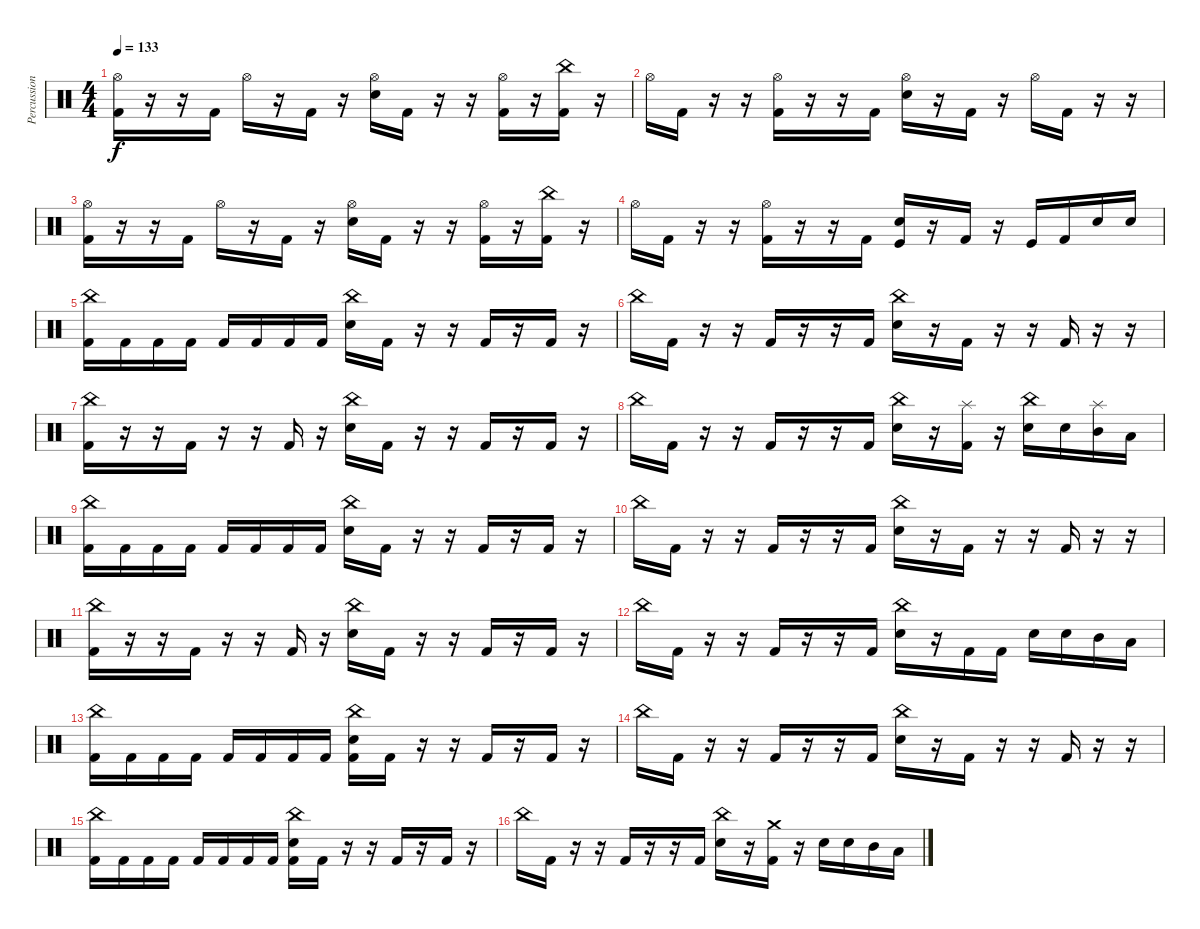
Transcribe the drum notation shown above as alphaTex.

\track ("Percussion" "Percussion") {instrument percussion}
\staff {score}
\articulation defaults
\ts (4 4)
\tempo 133
\clef neutral
\ks c
("Hi-Hat (open)" "Kick (hit) 2").16{dy f} r.16 r.16 "Kick (hit) 2".16 "Hi-Hat (open)".16 r.16 "Kick (hit) 2".16 r.16 ("Hi-Hat (open)" "Electric Snare (hit)").16 "Kick (hit) 2".16 r.16 r.16 ("Hi-Hat (open)" "Kick (hit) 2").16 r.16 ("China (hit)" "Kick (hit) 2").16 r.16 |
"Hi-Hat (open)".16 "Kick (hit) 2".16 r.16 r.16 ("Hi-Hat (open)" "Kick (hit) 2").16 r.16 r.16 "Kick (hit) 2".16 ("Hi-Hat (open)" "Electric Snare (hit)").16 r.16 "Kick (hit) 2".16 r.16 "Hi-Hat (open)".16 "Kick (hit) 2".16 r.16 r.16 |
("Hi-Hat (open)" "Kick (hit) 2").16 r.16 r.16 "Kick (hit) 2".16 "Hi-Hat (open)".16 r.16 "Kick (hit) 2".16 r.16 ("Hi-Hat (open)" "Electric Snare (hit)").16 "Kick (hit) 2".16 r.16 r.16 ("Hi-Hat (open)" "Kick (hit) 2").16 r.16 ("China (hit)" "Kick (hit) 2").16 r.16 |
"Hi-Hat (open)".16 "Kick (hit) 2".16 r.16 r.16 ("Hi-Hat (open)" "Kick (hit) 2").16 r.16 r.16 "Kick (hit) 2".16 ("Kick (hit)" "Electric Snare (hit)").16 r.16 "Kick (hit) 2".16 r.16 "Kick (hit)".16 "Kick (hit) 2".16 "Electric Snare (hit)".16 "Electric Snare (hit)".16 |
("China (hit)" "Kick (hit) 2").16 "Kick (hit) 2".16 "Kick (hit) 2".16 "Kick (hit) 2".16 "Kick (hit) 2".16 "Kick (hit) 2".16 "Kick (hit) 2".16 "Kick (hit) 2".16 ("China (hit)" "Electric Snare (hit)").16 "Kick (hit) 2".16 r.16 r.16 "Kick (hit) 2".16 r.16 "Kick (hit) 2".16 r.16 |
"China (hit)".16 "Kick (hit) 2".16 r.16 r.16 "Kick (hit) 2".16 r.16 r.16 "Kick (hit) 2".16 ("China (hit)" "Electric Snare (hit)").16 r.16 "Kick (hit) 2".16 r.16 r.16 "Kick (hit) 2".16 r.16 r.16 |
("China (hit)" "Kick (hit) 2").16 r.16 r.16 "Kick (hit) 2".16 r.16 r.16 "Kick (hit) 2".16 r.16 ("China (hit)" "Electric Snare (hit)").16 "Kick (hit) 2".16 r.16 r.16 "Kick (hit) 2".16 r.16 "Kick (hit) 2".16 r.16 |
"China (hit)".16 "Kick (hit) 2".16 r.16 r.16 "Kick (hit) 2".16 r.16 r.16 "Kick (hit) 2".16 ("China (hit)" "Electric Snare (hit)").16 r.16 ("Splash (hit)" "Kick (hit) 2").16 r.16 ("China (hit)" "Electric Snare (hit)").16 "Electric Snare (hit)".16 ("Splash (hit)" "Mid Tom (hit)").16 "Low Tom (hit)".16 |
("China (hit)" "Kick (hit) 2").16 "Kick (hit) 2".16 "Kick (hit) 2".16 "Kick (hit) 2".16 "Kick (hit) 2".16 "Kick (hit) 2".16 "Kick (hit) 2".16 "Kick (hit) 2".16 ("China (hit)" "Electric Snare (hit)").16 "Kick (hit) 2".16 r.16 r.16 "Kick (hit) 2".16 r.16 "Kick (hit) 2".16 r.16 |
"China (hit)".16 "Kick (hit) 2".16 r.16 r.16 "Kick (hit) 2".16 r.16 r.16 "Kick (hit) 2".16 ("China (hit)" "Electric Snare (hit)").16 r.16 "Kick (hit) 2".16 r.16 r.16 "Kick (hit) 2".16 r.16 r.16 |
("China (hit)" "Kick (hit) 2").16 r.16 r.16 "Kick (hit) 2".16 r.16 r.16 "Kick (hit) 2".16 r.16 ("China (hit)" "Electric Snare (hit)").16 "Kick (hit) 2".16 r.16 r.16 "Kick (hit) 2".16 r.16 "Kick (hit) 2".16 r.16 |
"China (hit)".16 "Kick (hit) 2".16 r.16 r.16 "Kick (hit) 2".16 r.16 r.16 "Kick (hit) 2".16 ("China (hit)" "Electric Snare (hit)").16 r.16 "Kick (hit) 2".16 "Kick (hit) 2".16 "Electric Snare (hit)".16 "Electric Snare (hit)".16 "Mid Tom (hit)".16 "Low Tom (hit)".16 |
("China (hit)" "Kick (hit) 2").16 "Kick (hit) 2".16 "Kick (hit) 2".16 "Kick (hit) 2".16 "Kick (hit) 2".16 "Kick (hit) 2".16 "Kick (hit) 2".16 "Kick (hit) 2".16 ("China (hit)" "Electric Snare (hit)" "Kick (hit) 2").16 "Kick (hit) 2".16 r.16 r.16 "Kick (hit) 2".16 r.16 "Kick (hit) 2".16 r.16 |
"China (hit)".16 "Kick (hit) 2".16 r.16 r.16 "Kick (hit) 2".16 r.16 r.16 "Kick (hit) 2".16 ("China (hit)" "Electric Snare (hit)").16 r.16 "Kick (hit) 2".16 r.16 r.16 "Kick (hit) 2".16 r.16 r.16 |
("China (hit)" "Kick (hit) 2").16 "Kick (hit) 2".16 "Kick (hit) 2".16 "Kick (hit) 2".16 "Kick (hit) 2".16 "Kick (hit) 2".16 "Kick (hit) 2".16 "Kick (hit) 2".16 ("China (hit)" "Electric Snare (hit)" "Kick (hit) 2").16 "Kick (hit) 2".16 r.16 r.16 "Kick (hit) 2".16 r.16 "Kick (hit) 2".16 r.16 |
"China (hit)".16 "Kick (hit) 2".16 r.16 r.16 "Kick (hit) 2".16 r.16 r.16 "Kick (hit) 2".16 ("China (hit)" "Electric Snare (hit)").16 r.16 ("Crash medium (hit)" "Kick (hit) 2").16 r.16 "Electric Snare (hit)".16 "Electric Snare (hit)".16 "Mid Tom (hit)".16 "Low Tom (hit)".16
